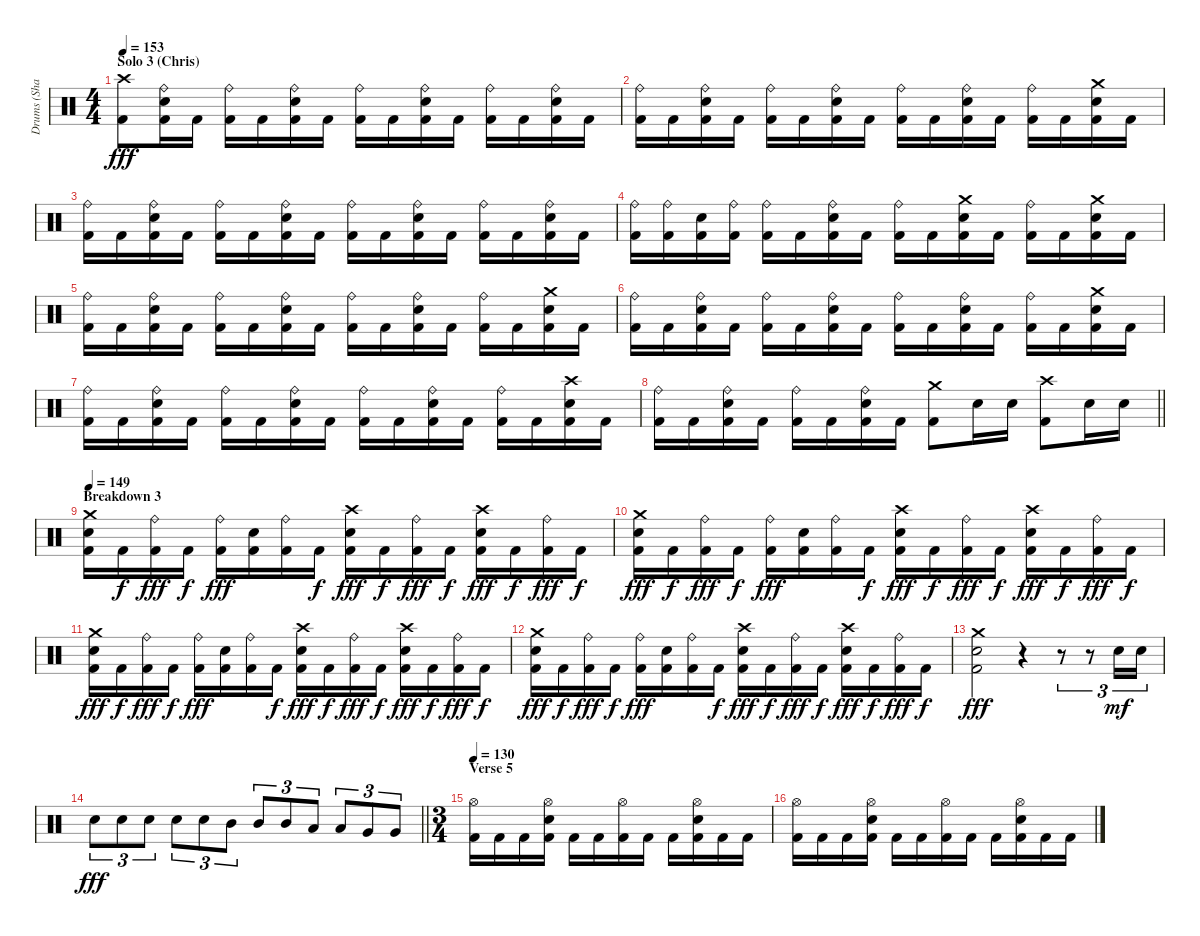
\track ("Drums (Shawn)" "Drums (Sha") {instrument percussion}
\staff {score}
\articulation defaults
\ts (4 4)
\section ("" "Solo 3 (Chris)")
\tempo 153
\clef neutral
\ks c
("Crash high (hit)" "Kick (hit) 2").8{dy fff} ("Ride (bell)" "Snare (hit) 2" "Kick (hit) 2").16 "Kick (hit) 2".16 ("Ride (bell)" "Kick (hit) 2").16 "Kick (hit) 2".16 ("Ride (bell)" "Snare (hit) 2" "Kick (hit) 2").16 "Kick (hit) 2".16 ("Ride (bell)" "Kick (hit) 2").16 "Kick (hit) 2".16 ("Ride (bell)" "Snare (hit) 2" "Kick (hit) 2").16 "Kick (hit) 2".16 ("Ride (bell)" "Kick (hit) 2").16 "Kick (hit) 2".16 ("Ride (bell)" "Snare (hit) 2" "Kick (hit) 2").16 "Kick (hit) 2".16 |
("Ride (bell)" "Kick (hit) 2").16 "Kick (hit) 2".16 ("Ride (bell)" "Snare (hit) 2" "Kick (hit) 2").16 "Kick (hit) 2".16 ("Ride (bell)" "Kick (hit) 2").16 "Kick (hit) 2".16 ("Ride (bell)" "Snare (hit) 2" "Kick (hit) 2").16 "Kick (hit) 2".16 ("Ride (bell)" "Kick (hit) 2").16 "Kick (hit) 2".16 ("Ride (bell)" "Snare (hit) 2" "Kick (hit) 2").16 "Kick (hit) 2".16 ("Ride (bell)" "Kick (hit) 2").16 "Kick (hit) 2".16 ("Crash medium (hit)" "Snare (hit) 2" "Kick (hit) 2").16 "Kick (hit) 2".16 |
("Ride (bell)" "Kick (hit) 2").16 "Kick (hit) 2".16 ("Ride (bell)" "Snare (hit) 2" "Kick (hit) 2").16 "Kick (hit) 2".16 ("Ride (bell)" "Kick (hit) 2").16 "Kick (hit) 2".16 ("Ride (bell)" "Snare (hit) 2" "Kick (hit) 2").16 "Kick (hit) 2".16 ("Ride (bell)" "Kick (hit) 2").16 "Kick (hit) 2".16 ("Ride (bell)" "Snare (hit) 2" "Kick (hit) 2").16 "Kick (hit) 2".16 ("Ride (bell)" "Kick (hit) 2").16 "Kick (hit) 2".16 ("Ride (bell)" "Snare (hit) 2" "Kick (hit) 2").16 "Kick (hit) 2".16 |
("Ride (bell)" "Kick (hit) 2").16 ("Ride (bell)" "Kick (hit) 2").16 ("Snare (hit) 2" "Kick (hit) 2").16 ("Ride (bell)" "Kick (hit) 2").16 ("Ride (bell)" "Kick (hit) 2").16 "Kick (hit) 2".16 ("Ride (bell)" "Snare (hit) 2" "Kick (hit) 2").16 "Kick (hit) 2".16 ("Ride (bell)" "Kick (hit) 2").16 "Kick (hit) 2".16 ("Crash medium (hit)" "Snare (hit) 2" "Kick (hit) 2").16 "Kick (hit) 2".16 ("Ride (bell)" "Kick (hit) 2").16 "Kick (hit) 2".16 ("Crash medium (hit)" "Snare (hit) 2" "Kick (hit) 2").16 "Kick (hit) 2".16 |
("Ride (bell)" "Kick (hit) 2").16 "Kick (hit) 2".16 ("Ride (bell)" "Snare (hit) 2" "Kick (hit) 2").16 "Kick (hit) 2".16 ("Ride (bell)" "Kick (hit) 2").16 "Kick (hit) 2".16 ("Ride (bell)" "Snare (hit) 2" "Kick (hit) 2").16 "Kick (hit) 2".16 ("Ride (bell)" "Kick (hit) 2").16 "Kick (hit) 2".16 ("Ride (bell)" "Snare (hit) 2" "Kick (hit) 2").16 "Kick (hit) 2".16 ("Ride (bell)" "Kick (hit) 2").16 "Kick (hit) 2".16 ("Crash medium (hit)" "Snare (hit) 2" "Kick (hit) 2").16 "Kick (hit) 2".16 |
("Ride (bell)" "Kick (hit) 2").16 "Kick (hit) 2".16 ("Ride (bell)" "Snare (hit) 2" "Kick (hit) 2").16 "Kick (hit) 2".16 ("Ride (bell)" "Kick (hit) 2").16 "Kick (hit) 2".16 ("Ride (bell)" "Snare (hit) 2" "Kick (hit) 2").16 "Kick (hit) 2".16 ("Ride (bell)" "Kick (hit) 2").16 "Kick (hit) 2".16 ("Ride (bell)" "Snare (hit) 2" "Kick (hit) 2").16 "Kick (hit) 2".16 ("Ride (bell)" "Kick (hit) 2").16 "Kick (hit) 2".16 ("Crash medium (hit)" "Snare (hit) 2" "Kick (hit) 2").16 "Kick (hit) 2".16 |
("Ride (bell)" "Kick (hit) 2").16 "Kick (hit) 2".16 ("Ride (bell)" "Snare (hit) 2" "Kick (hit) 2").16 "Kick (hit) 2".16 ("Ride (bell)" "Kick (hit) 2").16 "Kick (hit) 2".16 ("Ride (bell)" "Snare (hit) 2" "Kick (hit) 2").16 "Kick (hit) 2".16 ("Ride (bell)" "Kick (hit) 2").16 "Kick (hit) 2".16 ("Ride (bell)" "Snare (hit) 2" "Kick (hit) 2").16 "Kick (hit) 2".16 ("Ride (bell)" "Kick (hit) 2").16 "Kick (hit) 2".16 ("Crash high (hit)" "Snare (hit) 2" "Kick (hit) 2").16 "Kick (hit) 2".16 |
\barLineRight lightlight
("Ride (bell)" "Kick (hit) 2").16 "Kick (hit) 2".16 ("Ride (bell)" "Snare (hit) 2" "Kick (hit) 2").16 "Kick (hit) 2".16 ("Ride (bell)" "Kick (hit) 2").16 "Kick (hit) 2".16 ("Ride (bell)" "Snare (hit) 2" "Kick (hit) 2").16 "Kick (hit) 2".16 ("Crash medium (hit)" "Kick (hit) 2").8 "Snare (hit) 2".16 "Snare (hit) 2".16 ("Crash high (hit)" "Kick (hit) 2").8 "Snare (hit) 2".16 "Snare (hit) 2".16 |
\section ("" "Breakdown 3")
\tempo 149
("Crash medium (hit)" "Snare (hit) 2" "Kick (hit) 2").16 "Kick (hit) 2".16{dy f} ("Ride (bell)" "Kick (hit) 2").16{dy fff} "Kick (hit) 2".16{dy f} ("Ride (bell)" "Kick (hit) 2").16{dy fff} ("Snare (hit) 2" "Kick (hit) 2").16 ("Ride (bell)" "Kick (hit) 2").16 "Kick (hit) 2".16{dy f} ("Crash high (hit)" "Snare (hit) 2" "Kick (hit) 2").16{dy fff} "Kick (hit) 2".16{dy f} ("Ride (bell)" "Kick (hit) 2").16{dy fff} "Kick (hit) 2".16{dy f} ("Crash high (hit)" "Snare (hit) 2" "Kick (hit) 2").16{dy fff} "Kick (hit) 2".16{dy f} ("Ride (bell)" "Kick (hit) 2").16{dy fff} "Kick (hit) 2".16{dy f} |
("Crash medium (hit)" "Snare (hit) 2" "Kick (hit) 2").16{dy fff} "Kick (hit) 2".16{dy f} ("Ride (bell)" "Kick (hit) 2").16{dy fff} "Kick (hit) 2".16{dy f} ("Ride (bell)" "Kick (hit) 2").16{dy fff} ("Snare (hit) 2" "Kick (hit) 2").16 ("Ride (bell)" "Kick (hit) 2").16 "Kick (hit) 2".16{dy f} ("Crash high (hit)" "Snare (hit) 2" "Kick (hit) 2").16{dy fff} "Kick (hit) 2".16{dy f} ("Ride (bell)" "Kick (hit) 2").16{dy fff} "Kick (hit) 2".16{dy f} ("Crash high (hit)" "Snare (hit) 2" "Kick (hit) 2").16{dy fff} "Kick (hit) 2".16{dy f} ("Ride (bell)" "Kick (hit) 2").16{dy fff} "Kick (hit) 2".16{dy f} |
("Crash medium (hit)" "Snare (hit) 2" "Kick (hit) 2").16{dy fff} "Kick (hit) 2".16{dy f} ("Ride (bell)" "Kick (hit) 2").16{dy fff} "Kick (hit) 2".16{dy f} ("Ride (bell)" "Kick (hit) 2").16{dy fff} ("Snare (hit) 2" "Kick (hit) 2").16 ("Ride (bell)" "Kick (hit) 2").16 "Kick (hit) 2".16{dy f} ("Crash high (hit)" "Snare (hit) 2" "Kick (hit) 2").16{dy fff} "Kick (hit) 2".16{dy f} ("Ride (bell)" "Kick (hit) 2").16{dy fff} "Kick (hit) 2".16{dy f} ("Crash high (hit)" "Snare (hit) 2" "Kick (hit) 2").16{dy fff} "Kick (hit) 2".16{dy f} ("Ride (bell)" "Kick (hit) 2").16{dy fff} "Kick (hit) 2".16{dy f} |
("Crash medium (hit)" "Snare (hit) 2" "Kick (hit) 2").16{dy fff} "Kick (hit) 2".16{dy f} ("Ride (bell)" "Kick (hit) 2").16{dy fff} "Kick (hit) 2".16{dy f} ("Ride (bell)" "Kick (hit) 2").16{dy fff} ("Snare (hit) 2" "Kick (hit) 2").16 ("Ride (bell)" "Kick (hit) 2").16 "Kick (hit) 2".16{dy f} ("Crash high (hit)" "Snare (hit) 2" "Kick (hit) 2").16{dy fff} "Kick (hit) 2".16{dy f} ("Ride (bell)" "Kick (hit) 2").16{dy fff} "Kick (hit) 2".16{dy f} ("Crash high (hit)" "Snare (hit) 2" "Kick (hit) 2").16{dy fff} "Kick (hit) 2".16{dy f} ("Ride (bell)" "Kick (hit) 2").16{dy fff} "Kick (hit) 2".16{dy f} |
("Crash medium (hit)" "Snare (hit) 2" "Kick (hit) 2").2{dy fff} r.4 r.8{tu (3 2)} r.8{tu (3 2)} "Snare (hit) 2".16{tu (3 2) dy mf} "Snare (hit) 2".16{tu (3 2)} |
\barLineRight lightlight "Snare (hit) 2".8{tu (3 2) dy fff} "Snare (hit) 2".8{tu (3 2)} "Snare (hit) 2".8{tu (3 2)} "Snare (hit) 2".8{tu (3 2)} "Snare (hit) 2".8{tu (3 2)} "Mid Tom (hit)".8{tu (3 2)} "Mid Tom (hit)".8{tu (3 2)} "Mid Tom (hit)".8{tu (3 2)} "Low Tom (hit)".8{tu (3 2)} "Low Tom (hit)".8{tu (3 2)} "Very Low Tom (hit)".8{tu (3 2)} "Very Low Tom (hit)".8{tu (3 2)}
|
\ts (3 4)
\section ("" "Verse 5")
\tempo 130
("Hi-Hat (open)" "Kick (hit) 2").16 "Kick (hit) 2".16 "Kick (hit) 2".16 ("Hi-Hat (open)" "Snare (hit) 2" "Kick (hit) 2").16 "Kick (hit) 2".16 "Kick (hit) 2".16 ("Hi-Hat (open)" "Kick (hit) 2").16 "Kick (hit) 2".16 "Kick (hit) 2".16 ("Hi-Hat (open)" "Snare (hit) 2" "Kick (hit) 2").16 "Kick (hit) 2".16 "Kick (hit) 2".16 |
("Hi-Hat (open)" "Kick (hit) 2").16 "Kick (hit) 2".16 "Kick (hit) 2".16 ("Hi-Hat (open)" "Snare (hit) 2" "Kick (hit) 2").16 "Kick (hit) 2".16 "Kick (hit) 2".16 ("Hi-Hat (open)" "Kick (hit) 2").16 "Kick (hit) 2".16 "Kick (hit) 2".16 ("Hi-Hat (open)" "Snare (hit) 2" "Kick (hit) 2").16 "Kick (hit) 2".16 "Kick (hit) 2".16
